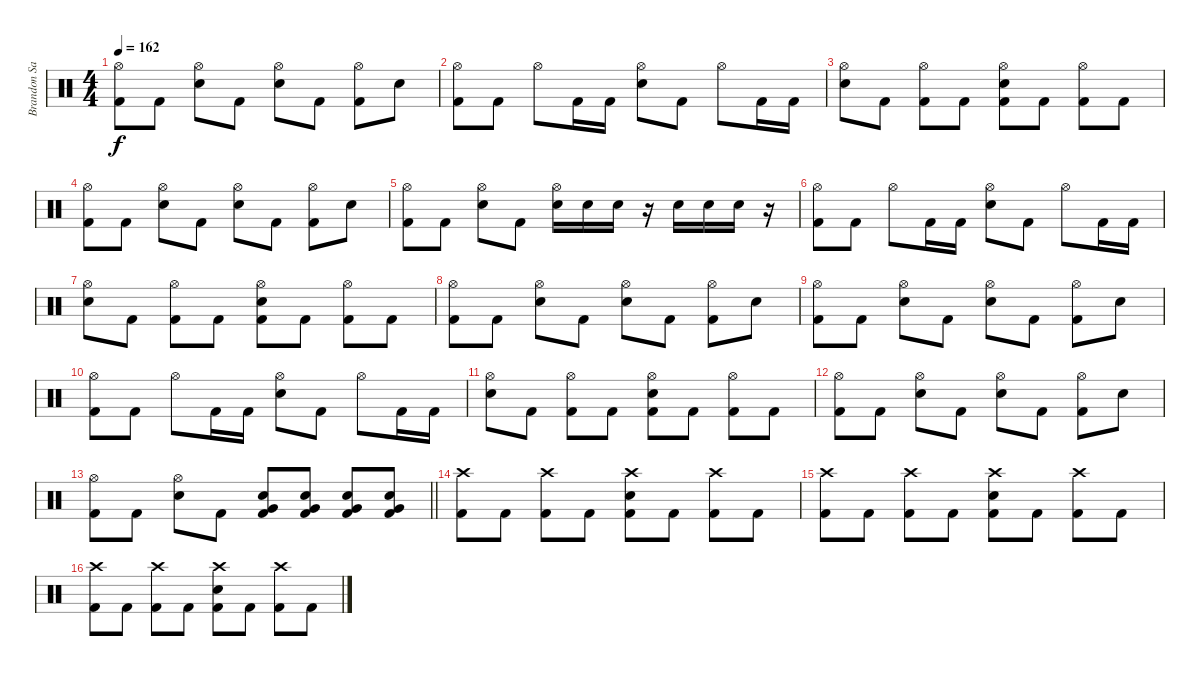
\track ("Brandon Saller" "Brandon Sa") {instrument percussion}
\staff {score}
\articulation defaults
\ts (4 4)
\tempo 162
\clef neutral
\ks c
("Hi-Hat (open)" "Kick (hit) 2").8{dy f} "Kick (hit) 2".8 ("Hi-Hat (open)" "Electric Snare (hit)").8 "Kick (hit) 2".8 ("Hi-Hat (open)" "Electric Snare (hit)").8 "Kick (hit) 2".8 ("Hi-Hat (open)" "Kick (hit) 2").8 "Electric Snare (hit)".8 |
("Hi-Hat (open)" "Kick (hit) 2").8 "Kick (hit) 2".8 "Hi-Hat (open)".8 "Kick (hit) 2".16 "Kick (hit) 2".16 ("Hi-Hat (open)" "Electric Snare (hit)").8 "Kick (hit) 2".8 "Hi-Hat (open)".8 "Kick (hit) 2".16 "Kick (hit) 2".16 |
("Hi-Hat (open)" "Electric Snare (hit)").8 "Kick (hit) 2".8 ("Hi-Hat (open)" "Kick (hit) 2").8 "Kick (hit) 2".8 ("Hi-Hat (open)" "Electric Snare (hit)" "Kick (hit) 2").8 "Kick (hit) 2".8 ("Hi-Hat (open)" "Kick (hit) 2").8 "Kick (hit) 2".8 |
("Hi-Hat (open)" "Kick (hit) 2").8 "Kick (hit) 2".8 ("Hi-Hat (open)" "Electric Snare (hit)").8 "Kick (hit) 2".8 ("Hi-Hat (open)" "Electric Snare (hit)").8 "Kick (hit) 2".8 ("Hi-Hat (open)" "Kick (hit) 2").8 "Electric Snare (hit)".8 |
("Hi-Hat (open)" "Kick (hit) 2").8 "Kick (hit) 2".8 ("Hi-Hat (open)" "Electric Snare (hit)").8 "Kick (hit) 2".8 ("Hi-Hat (open)" "Electric Snare (hit)").16 "Electric Snare (hit)".16 "Electric Snare (hit)".16 r.16 "Electric Snare (hit)".16 "Electric Snare (hit)".16 "Electric Snare (hit)".16 r.16 |
("Hi-Hat (open)" "Kick (hit) 2").8 "Kick (hit) 2".8 "Hi-Hat (open)".8 "Kick (hit) 2".16 "Kick (hit) 2".16 ("Hi-Hat (open)" "Electric Snare (hit)").8 "Kick (hit) 2".8 "Hi-Hat (open)".8 "Kick (hit) 2".16 "Kick (hit) 2".16 |
("Hi-Hat (open)" "Electric Snare (hit)").8 "Kick (hit) 2".8 ("Hi-Hat (open)" "Kick (hit) 2").8 "Kick (hit) 2".8 ("Hi-Hat (open)" "Electric Snare (hit)" "Kick (hit) 2").8 "Kick (hit) 2".8 ("Hi-Hat (open)" "Kick (hit) 2").8 "Kick (hit) 2".8 |
("Hi-Hat (open)" "Kick (hit) 2").8 "Kick (hit) 2".8 ("Hi-Hat (open)" "Electric Snare (hit)").8 "Kick (hit) 2".8 ("Hi-Hat (open)" "Electric Snare (hit)").8 "Kick (hit) 2".8 ("Hi-Hat (open)" "Kick (hit) 2").8 "Electric Snare (hit)".8 |
("Hi-Hat (open)" "Kick (hit) 2").8 "Kick (hit) 2".8 ("Hi-Hat (open)" "Electric Snare (hit)").8 "Kick (hit) 2".8 ("Hi-Hat (open)" "Electric Snare (hit)").8 "Kick (hit) 2".8 ("Hi-Hat (open)" "Kick (hit) 2").8 "Electric Snare (hit)".8 |
("Hi-Hat (open)" "Kick (hit) 2").8 "Kick (hit) 2".8 "Hi-Hat (open)".8 "Kick (hit) 2".16 "Kick (hit) 2".16 ("Hi-Hat (open)" "Electric Snare (hit)").8 "Kick (hit) 2".8 "Hi-Hat (open)".8 "Kick (hit) 2".16 "Kick (hit) 2".16 |
("Hi-Hat (open)" "Electric Snare (hit)").8 "Kick (hit) 2".8 ("Hi-Hat (open)" "Kick (hit) 2").8 "Kick (hit) 2".8 ("Hi-Hat (open)" "Electric Snare (hit)" "Kick (hit) 2").8 "Kick (hit) 2".8 ("Hi-Hat (open)" "Kick (hit) 2").8 "Kick (hit) 2".8 |
("Hi-Hat (open)" "Kick (hit) 2").8 "Kick (hit) 2".8 ("Hi-Hat (open)" "Electric Snare (hit)").8 "Kick (hit) 2".8 ("Hi-Hat (open)" "Electric Snare (hit)").8 "Kick (hit) 2".8 ("Hi-Hat (open)" "Kick (hit) 2").8 "Electric Snare (hit)".8 |
\barLineRight lightlight
("Hi-Hat (open)" "Kick (hit) 2").8 "Kick (hit) 2".8 ("Hi-Hat (open)" "Electric Snare (hit)").8 "Kick (hit) 2".8 ("Electric Snare (hit)" "Very Low Tom (hit)" "Kick (hit) 2").8 ("Electric Snare (hit)" "Very Low Tom (hit)" "Kick (hit) 2").8 ("Electric Snare (hit)" "Very Low Tom (hit)" "Kick (hit) 2").8 ("Electric Snare (hit)" "Very Low Tom (hit)" "Kick (hit) 2").8 |
\section ("" "")
("Crash high (hit)" "Kick (hit) 2").8 "Kick (hit) 2".8 ("Crash high (hit)" "Kick (hit) 2").8 "Kick (hit) 2".8 ("Crash high (hit)" "Electric Snare (hit)" "Kick (hit) 2").8 "Kick (hit) 2".8 ("Crash high (hit)" "Kick (hit) 2").8 "Kick (hit) 2".8 |
("Crash high (hit)" "Kick (hit) 2").8 "Kick (hit) 2".8 ("Crash high (hit)" "Kick (hit) 2").8 "Kick (hit) 2".8 ("Crash high (hit)" "Electric Snare (hit)" "Kick (hit) 2").8 "Kick (hit) 2".8 ("Crash high (hit)" "Kick (hit) 2").8 "Kick (hit) 2".8 |
("Crash high (hit)" "Kick (hit) 2").8 "Kick (hit) 2".8 ("Crash high (hit)" "Kick (hit) 2").8 "Kick (hit) 2".8 ("Crash high (hit)" "Electric Snare (hit)" "Kick (hit) 2").8 "Kick (hit) 2".8 ("Crash high (hit)" "Kick (hit) 2").8 "Kick (hit) 2".8
